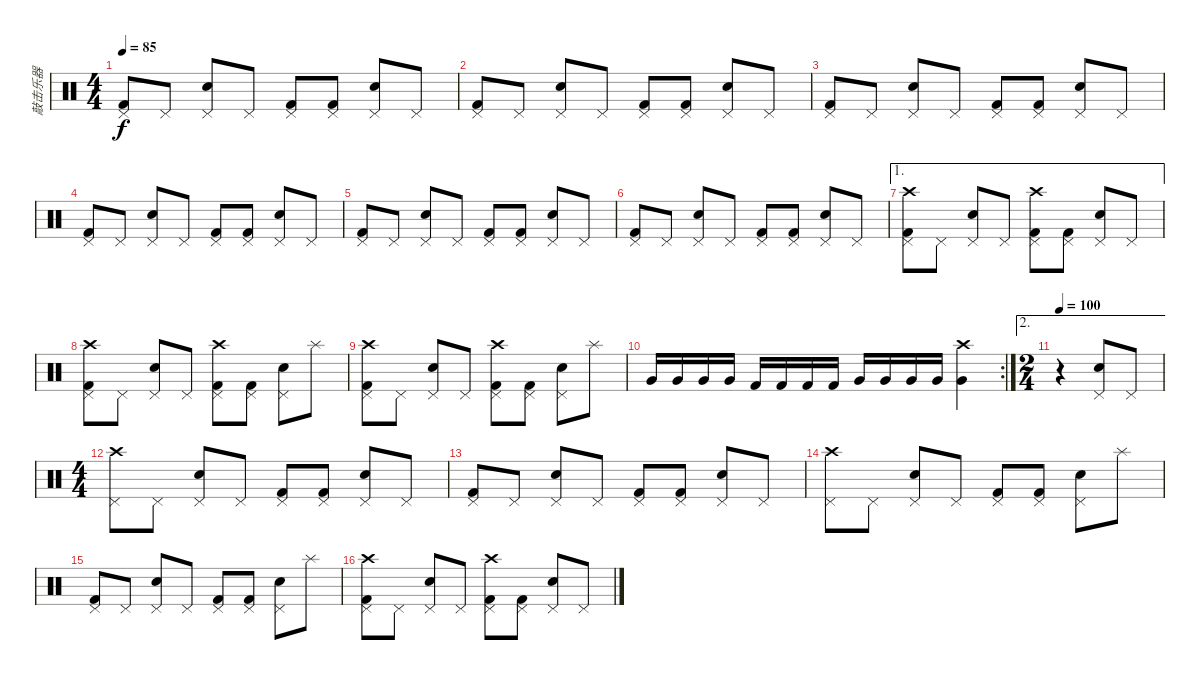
\track ("敲击乐器" "敲击乐器") {instrument percussion}
\staff {score}
\articulation defaults
\ts (4 4)
\tempo 85
\clef neutral
\ks c
("Kick (hit) 2" "Pedal Hi-Hat (hit)").8{dy f} "Pedal Hi-Hat (hit)".8 ("Snare (hit) 2" "Pedal Hi-Hat (hit)").8 "Pedal Hi-Hat (hit)".8 ("Kick (hit) 2" "Pedal Hi-Hat (hit)").8 ("Kick (hit) 2" "Pedal Hi-Hat (hit)").8 ("Snare (hit) 2" "Pedal Hi-Hat (hit)").8 "Pedal Hi-Hat (hit)".8 |
("Kick (hit) 2" "Pedal Hi-Hat (hit)").8 "Pedal Hi-Hat (hit)".8 ("Snare (hit) 2" "Pedal Hi-Hat (hit)").8 "Pedal Hi-Hat (hit)".8 ("Kick (hit) 2" "Pedal Hi-Hat (hit)").8 ("Kick (hit) 2" "Pedal Hi-Hat (hit)").8 ("Snare (hit) 2" "Pedal Hi-Hat (hit)").8 "Pedal Hi-Hat (hit)".8 |
("Kick (hit) 2" "Pedal Hi-Hat (hit)").8 "Pedal Hi-Hat (hit)".8 ("Snare (hit) 2" "Pedal Hi-Hat (hit)").8 "Pedal Hi-Hat (hit)".8 ("Kick (hit) 2" "Pedal Hi-Hat (hit)").8 ("Kick (hit) 2" "Pedal Hi-Hat (hit)").8 ("Snare (hit) 2" "Pedal Hi-Hat (hit)").8 "Pedal Hi-Hat (hit)".8 |
("Kick (hit) 2" "Pedal Hi-Hat (hit)").8 "Pedal Hi-Hat (hit)".8 ("Snare (hit) 2" "Pedal Hi-Hat (hit)").8 "Pedal Hi-Hat (hit)".8 ("Kick (hit) 2" "Pedal Hi-Hat (hit)").8 ("Kick (hit) 2" "Pedal Hi-Hat (hit)").8 ("Snare (hit) 2" "Pedal Hi-Hat (hit)").8 "Pedal Hi-Hat (hit)".8 |
("Kick (hit) 2" "Pedal Hi-Hat (hit)").8 "Pedal Hi-Hat (hit)".8 ("Snare (hit) 2" "Pedal Hi-Hat (hit)").8 "Pedal Hi-Hat (hit)".8 ("Kick (hit) 2" "Pedal Hi-Hat (hit)").8 ("Kick (hit) 2" "Pedal Hi-Hat (hit)").8 ("Snare (hit) 2" "Pedal Hi-Hat (hit)").8 "Pedal Hi-Hat (hit)".8 |
("Kick (hit) 2" "Pedal Hi-Hat (hit)").8 "Pedal Hi-Hat (hit)".8 ("Snare (hit) 2" "Pedal Hi-Hat (hit)").8 "Pedal Hi-Hat (hit)".8 ("Kick (hit) 2" "Pedal Hi-Hat (hit)").8 ("Kick (hit) 2" "Pedal Hi-Hat (hit)").8 ("Snare (hit) 2" "Pedal Hi-Hat (hit)").8 "Pedal Hi-Hat (hit)".8 |
\ae 1
("Crash high (hit)" "Pedal Hi-Hat (hit)" "Kick (hit) 2").8 "Pedal Hi-Hat (hit)".8 ("Snare (hit) 2" "Pedal Hi-Hat (hit)").8 "Pedal Hi-Hat (hit)".8 ("Kick (hit) 2" "Pedal Hi-Hat (hit)" "Crash high (hit)").8 ("Kick (hit) 2" "Pedal Hi-Hat (hit)").8 ("Snare (hit) 2" "Pedal Hi-Hat (hit)").8 "Pedal Hi-Hat (hit)".8 |
("Crash high (hit)" "Pedal Hi-Hat (hit)" "Kick (hit) 2").8 "Pedal Hi-Hat (hit)".8 ("Snare (hit) 2" "Pedal Hi-Hat (hit)").8 "Pedal Hi-Hat (hit)".8 ("Kick (hit) 2" "Pedal Hi-Hat (hit)" "Crash high (hit)").8 ("Kick (hit) 2" "Pedal Hi-Hat (hit)").8 ("Snare (hit) 2" "Pedal Hi-Hat (hit)").8 "Splash (hit)".8 |
("Kick (hit) 2" "Pedal Hi-Hat (hit)" "Crash high (hit)").8 "Pedal Hi-Hat (hit)".8 ("Snare (hit) 2" "Pedal Hi-Hat (hit)").8 "Pedal Hi-Hat (hit)".8 ("Kick (hit) 2" "Pedal Hi-Hat (hit)" "Crash high (hit)").8 ("Kick (hit) 2" "Pedal Hi-Hat (hit)").8 ("Snare (hit) 2" "Pedal Hi-Hat (hit)").8 "Splash (hit)".8 |
\rc 2 "Very Low Tom (hit)".16 "Very Low Tom (hit)".16 "Very Low Tom (hit)".16 "Very Low Tom (hit)".16 "Kick (hit) 2".16 "Kick (hit) 2".16 "Kick (hit) 2".16 "Kick (hit) 2".16 "Very Low Tom (hit)".16 "Very Low Tom (hit)".16 "Very Low Tom (hit)".16 "Very Low Tom (hit)".16
("Crash high (hit)" "Very Low Tom (hit)").4 |
\ae 2
\ts (2 4)
\tempo 100
r.4 ("Snare (hit) 2" "Pedal Hi-Hat (hit)").8 "Pedal Hi-Hat (hit)".8 |
\ts (4 4)
("Crash high (hit)" "Pedal Hi-Hat (hit)").8 "Pedal Hi-Hat (hit)".8 ("Snare (hit) 2" "Pedal Hi-Hat (hit)").8 "Pedal Hi-Hat (hit)".8 ("Kick (hit) 2" "Pedal Hi-Hat (hit)").8 ("Kick (hit) 2" "Pedal Hi-Hat (hit)").8 ("Snare (hit) 2" "Pedal Hi-Hat (hit)").8 "Pedal Hi-Hat (hit)".8 |
("Kick (hit) 2" "Pedal Hi-Hat (hit)").8 "Pedal Hi-Hat (hit)".8 ("Snare (hit) 2" "Pedal Hi-Hat (hit)").8 "Pedal Hi-Hat (hit)".8 ("Kick (hit) 2" "Pedal Hi-Hat (hit)").8 ("Kick (hit) 2" "Pedal Hi-Hat (hit)").8 ("Snare (hit) 2" "Pedal Hi-Hat (hit)").8 "Pedal Hi-Hat (hit)".8 |
("Crash high (hit)" "Pedal Hi-Hat (hit)").8 "Pedal Hi-Hat (hit)".8 ("Snare (hit) 2" "Pedal Hi-Hat (hit)").8 "Pedal Hi-Hat (hit)".8 ("Kick (hit) 2" "Pedal Hi-Hat (hit)").8 ("Kick (hit) 2" "Pedal Hi-Hat (hit)").8 ("Snare (hit) 2" "Pedal Hi-Hat (hit)").8 "Splash (hit)".8 |
("Kick (hit) 2" "Pedal Hi-Hat (hit)").8 "Pedal Hi-Hat (hit)".8 ("Snare (hit) 2" "Pedal Hi-Hat (hit)").8 "Pedal Hi-Hat (hit)".8 ("Kick (hit) 2" "Pedal Hi-Hat (hit)").8 ("Kick (hit) 2" "Pedal Hi-Hat (hit)").8 ("Snare (hit) 2" "Pedal Hi-Hat (hit)").8 "Splash (hit)".8 |
("Crash high (hit)" "Pedal Hi-Hat (hit)" "Kick (hit) 2").8 "Pedal Hi-Hat (hit)".8 ("Snare (hit) 2" "Pedal Hi-Hat (hit)").8 "Pedal Hi-Hat (hit)".8 ("Crash high (hit)" "Pedal Hi-Hat (hit)" "Kick (hit) 2").8 ("Pedal Hi-Hat (hit)" "Kick (hit) 2").8 ("Snare (hit) 2" "Pedal Hi-Hat (hit)").8 "Pedal Hi-Hat (hit)".8
